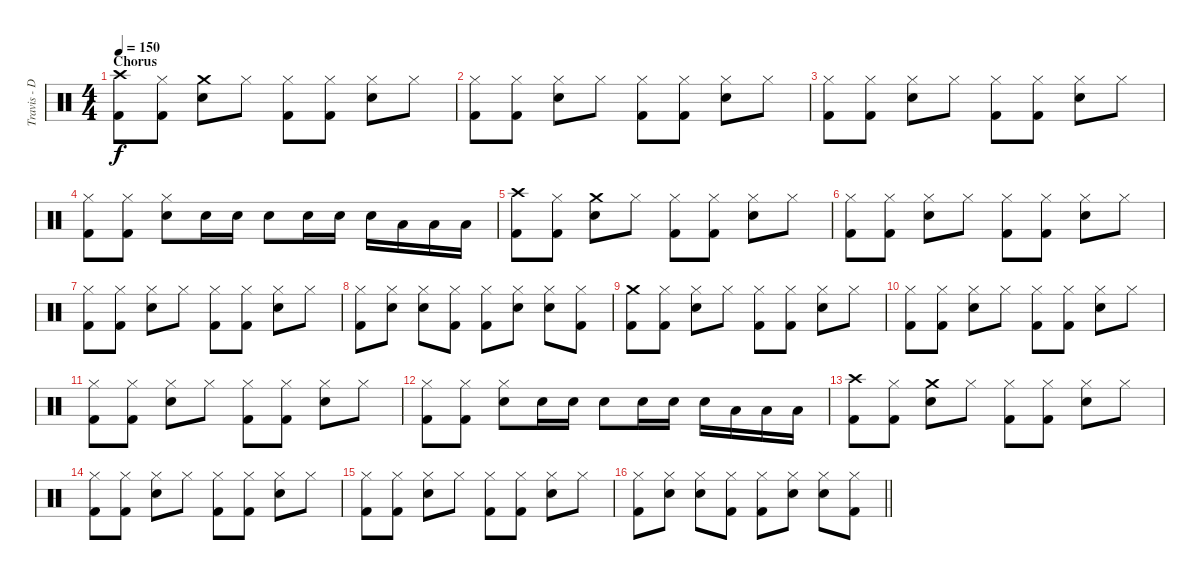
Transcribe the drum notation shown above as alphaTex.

\track ("Travis - Drums" "Travis - D") {instrument percussion}
\staff {score}
\articulation defaults
\ts (4 4)
\section ("" "Chorus")
\tempo 150
\clef neutral
\ks c
("Crash high (hit)" "Kick (hit) 2").8{dy f} ("Hi-Hat (closed)" "Kick (hit) 2").8 ("Crash medium (hit)" "Electric Snare (hit)").8 "Hi-Hat (closed)".8 ("Hi-Hat (closed)" "Kick (hit) 2").8 ("Hi-Hat (closed)" "Kick (hit) 2").8 ("Hi-Hat (closed)" "Electric Snare (hit)").8 "Hi-Hat (closed)".8 |
("Hi-Hat (closed)" "Kick (hit) 2").8 ("Hi-Hat (closed)" "Kick (hit) 2").8 ("Hi-Hat (closed)" "Electric Snare (hit)").8 "Hi-Hat (closed)".8 ("Hi-Hat (closed)" "Kick (hit) 2").8 ("Hi-Hat (closed)" "Kick (hit) 2").8 ("Hi-Hat (closed)" "Electric Snare (hit)").8 "Hi-Hat (closed)".8 |
("Hi-Hat (closed)" "Kick (hit) 2").8 ("Hi-Hat (closed)" "Kick (hit) 2").8 ("Hi-Hat (closed)" "Electric Snare (hit)").8 "Hi-Hat (closed)".8 ("Hi-Hat (closed)" "Kick (hit) 2").8 ("Hi-Hat (closed)" "Kick (hit) 2").8 ("Hi-Hat (closed)" "Electric Snare (hit)").8 "Hi-Hat (closed)".8 |
("Hi-Hat (closed)" "Kick (hit) 2").8 ("Hi-Hat (closed)" "Kick (hit) 2").8 ("Hi-Hat (closed)" "Electric Snare (hit)").8 "Electric Snare (hit)".16 "Electric Snare (hit)".16 "Electric Snare (hit)".8 "Electric Snare (hit)".16 "Electric Snare (hit)".16 "Electric Snare (hit)".16 "Low Tom (hit)".16 "Low Tom (hit)".16 "Low Tom (hit)".16 |
("Crash high (hit)" "Kick (hit) 2").8 ("Hi-Hat (closed)" "Kick (hit) 2").8 ("Crash medium (hit)" "Electric Snare (hit)").8 "Hi-Hat (closed)".8 ("Hi-Hat (closed)" "Kick (hit) 2").8 ("Hi-Hat (closed)" "Kick (hit) 2").8 ("Hi-Hat (closed)" "Electric Snare (hit)").8 "Hi-Hat (closed)".8 |
("Hi-Hat (closed)" "Kick (hit) 2").8 ("Hi-Hat (closed)" "Kick (hit) 2").8 ("Hi-Hat (closed)" "Electric Snare (hit)").8 "Hi-Hat (closed)".8 ("Hi-Hat (closed)" "Kick (hit) 2").8 ("Hi-Hat (closed)" "Kick (hit) 2").8 ("Hi-Hat (closed)" "Electric Snare (hit)").8 "Hi-Hat (closed)".8 |
("Hi-Hat (closed)" "Kick (hit) 2").8 ("Hi-Hat (closed)" "Kick (hit) 2").8 ("Hi-Hat (closed)" "Electric Snare (hit)").8 "Hi-Hat (closed)".8 ("Hi-Hat (closed)" "Kick (hit) 2").8 ("Hi-Hat (closed)" "Kick (hit) 2").8 ("Hi-Hat (closed)" "Electric Snare (hit)").8 "Hi-Hat (closed)".8 |
("Hi-Hat (closed)" "Kick (hit) 2").8 ("Hi-Hat (closed)" "Electric Snare (hit)").8 ("Hi-Hat (closed)" "Electric Snare (hit)").8 ("Hi-Hat (closed)" "Kick (hit) 2").8 ("Hi-Hat (closed)" "Kick (hit) 2").8 ("Hi-Hat (closed)" "Electric Snare (hit)").8 ("Hi-Hat (closed)" "Electric Snare (hit)").8 ("Hi-Hat (closed)" "Kick (hit) 2").8 |
("Crash medium (hit)" "Kick (hit) 2").8 ("Hi-Hat (closed)" "Kick (hit) 2").8 ("Hi-Hat (closed)" "Electric Snare (hit)").8 "Hi-Hat (closed)".8 ("Hi-Hat (closed)" "Kick (hit) 2").8 ("Hi-Hat (closed)" "Kick (hit) 2").8 ("Hi-Hat (closed)" "Electric Snare (hit)").8 "Hi-Hat (closed)".8 |
("Hi-Hat (closed)" "Kick (hit) 2").8 ("Hi-Hat (closed)" "Kick (hit) 2").8 ("Hi-Hat (closed)" "Electric Snare (hit)").8 "Hi-Hat (closed)".8 ("Hi-Hat (closed)" "Kick (hit) 2").8 ("Hi-Hat (closed)" "Kick (hit) 2").8 ("Hi-Hat (closed)" "Electric Snare (hit)").8 "Hi-Hat (closed)".8 |
("Hi-Hat (closed)" "Kick (hit) 2").8 ("Hi-Hat (closed)" "Kick (hit) 2").8 ("Hi-Hat (closed)" "Electric Snare (hit)").8 "Hi-Hat (closed)".8 ("Hi-Hat (closed)" "Kick (hit) 2").8 ("Hi-Hat (closed)" "Kick (hit) 2").8 ("Hi-Hat (closed)" "Electric Snare (hit)").8 "Hi-Hat (closed)".8 |
("Hi-Hat (closed)" "Kick (hit) 2").8 ("Hi-Hat (closed)" "Kick (hit) 2").8 ("Hi-Hat (closed)" "Electric Snare (hit)").8 "Electric Snare (hit)".16 "Electric Snare (hit)".16 "Electric Snare (hit)".8 "Electric Snare (hit)".16 "Electric Snare (hit)".16 "Electric Snare (hit)".16 "Low Tom (hit)".16 "Low Tom (hit)".16 "Low Tom (hit)".16 |
("Crash high (hit)" "Kick (hit) 2").8 ("Hi-Hat (closed)" "Kick (hit) 2").8 ("Crash medium (hit)" "Electric Snare (hit)").8 "Hi-Hat (closed)".8 ("Hi-Hat (closed)" "Kick (hit) 2").8 ("Hi-Hat (closed)" "Kick (hit) 2").8 ("Hi-Hat (closed)" "Electric Snare (hit)").8 "Hi-Hat (closed)".8 |
("Hi-Hat (closed)" "Kick (hit) 2").8 ("Hi-Hat (closed)" "Kick (hit) 2").8 ("Hi-Hat (closed)" "Electric Snare (hit)").8 "Hi-Hat (closed)".8 ("Hi-Hat (closed)" "Kick (hit) 2").8 ("Hi-Hat (closed)" "Kick (hit) 2").8 ("Hi-Hat (closed)" "Electric Snare (hit)").8 "Hi-Hat (closed)".8 |
("Hi-Hat (closed)" "Kick (hit) 2").8 ("Hi-Hat (closed)" "Kick (hit) 2").8 ("Hi-Hat (closed)" "Electric Snare (hit)").8 "Hi-Hat (closed)".8 ("Hi-Hat (closed)" "Kick (hit) 2").8 ("Hi-Hat (closed)" "Kick (hit) 2").8 ("Hi-Hat (closed)" "Electric Snare (hit)").8 "Hi-Hat (closed)".8 |
\barLineRight lightlight
("Hi-Hat (closed)" "Kick (hit) 2").8 ("Hi-Hat (closed)" "Electric Snare (hit)").8 ("Hi-Hat (closed)" "Electric Snare (hit)").8 ("Hi-Hat (closed)" "Kick (hit) 2").8 ("Hi-Hat (closed)" "Kick (hit) 2").8 ("Hi-Hat (closed)" "Electric Snare (hit)").8 ("Hi-Hat (closed)" "Electric Snare (hit)").8 ("Hi-Hat (closed)" "Kick (hit) 2").8
